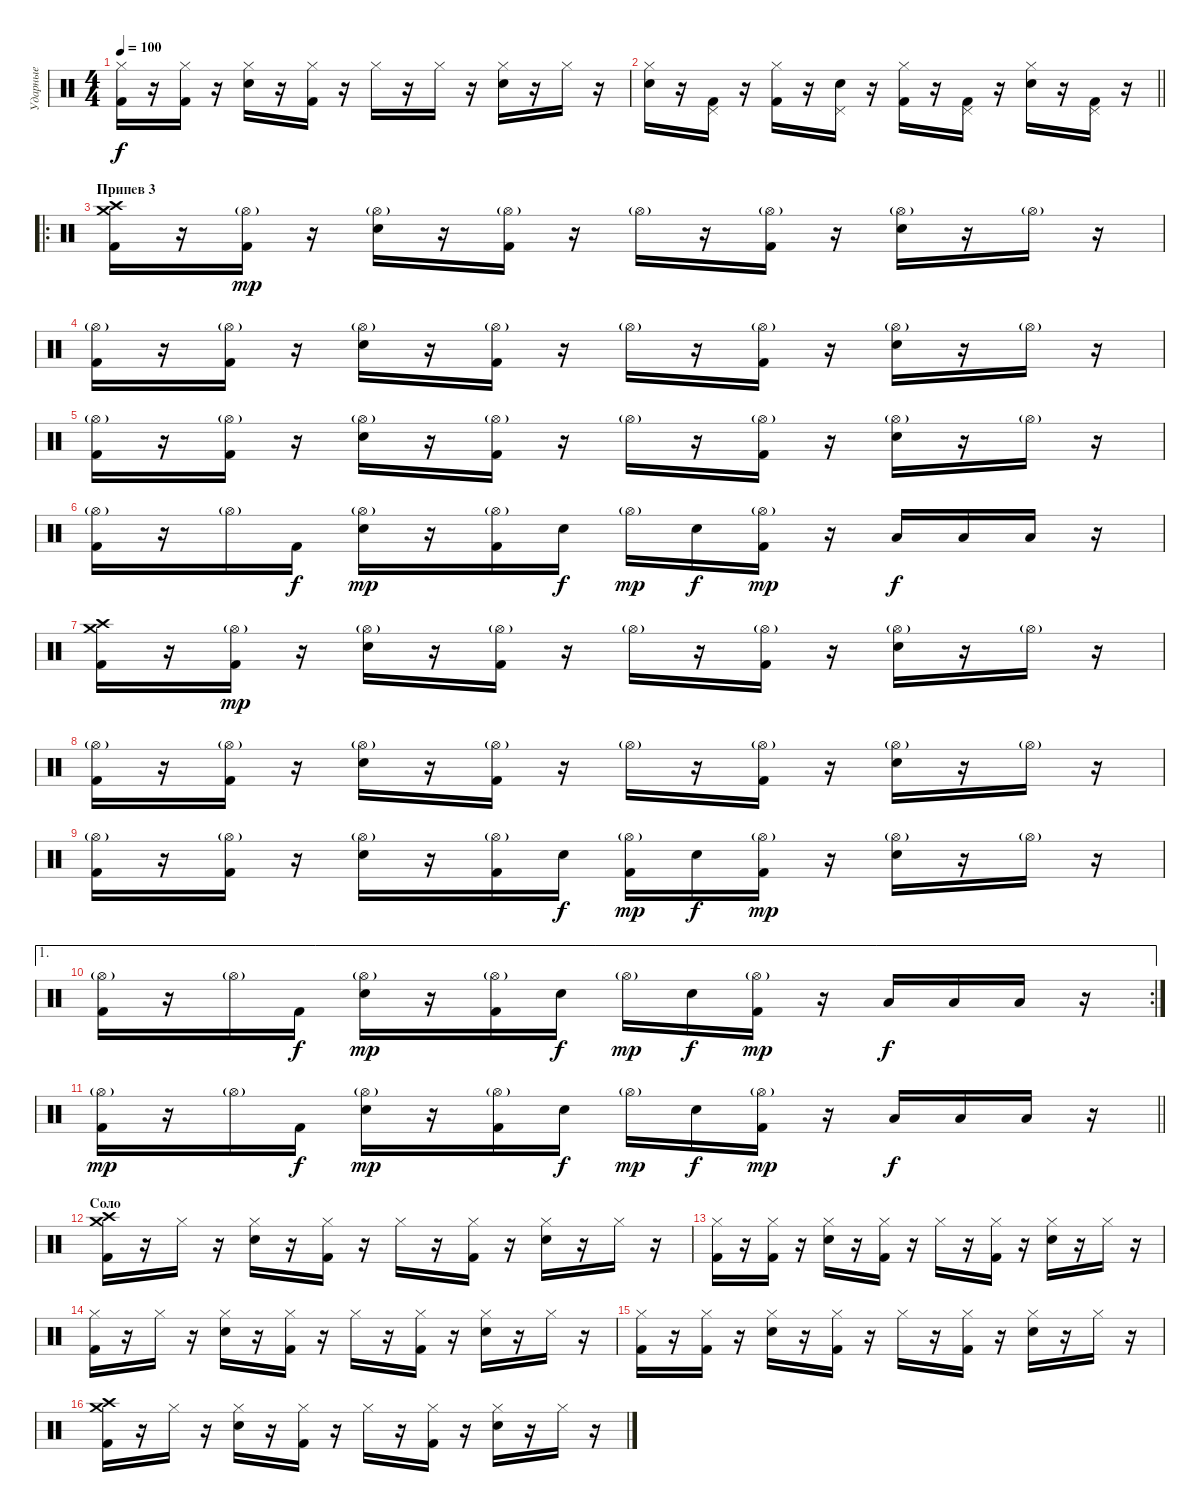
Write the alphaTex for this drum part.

\track ("Ударные" "Ударные") {instrument percussion}
\staff {score}
\articulation defaults
\ts (4 4)
\tempo 100
\clef neutral
\ks c
("Hi-Hat (closed)" "Kick (hit) 2").16{dy f} r.16 ("Hi-Hat (closed)" "Kick (hit) 2").16 r.16 ("Hi-Hat (closed)" "Electric Snare (hit)").16 r.16 ("Hi-Hat (closed)" "Kick (hit) 2").16 r.16 "Hi-Hat (closed)".16 r.16 "Hi-Hat (closed)".16 r.16 ("Hi-Hat (closed)" "Electric Snare (hit)").16 r.16 "Hi-Hat (closed)".16 r.16 |
\barLineRight lightlight
("Hi-Hat (closed)" "Electric Snare (hit)").16 r.16 ("Pedal Hi-Hat (hit)" "Kick (hit) 2").16 r.16 ("Hi-Hat (closed)" "Kick (hit) 2").16 r.16 ("Pedal Hi-Hat (hit)" "Electric Snare (hit)").16 r.16 ("Hi-Hat (closed)" "Kick (hit) 2").16 r.16 ("Pedal Hi-Hat (hit)" "Kick (hit) 2").16 r.16 ("Hi-Hat (closed)" "Electric Snare (hit)").16 r.16 ("Pedal Hi-Hat (hit)" "Kick (hit) 2").16 r.16 |
\ro
\section ("" "Припев 3")
("Crash high (hit)" "Crash medium (hit)" "Kick (hit) 2").16 r.16 ("Hi-Hat (open)"{g} "Kick (hit) 2").16{dy mp} r.16 ("Hi-Hat (open)"{g} "Electric Snare (hit)").16 r.16 ("Hi-Hat (open)"{g} "Kick (hit) 2").16 r.16 "Hi-Hat (open)"{g}.16 r.16 ("Hi-Hat (open)"{g} "Kick (hit) 2").16 r.16 ("Hi-Hat (open)"{g} "Electric Snare (hit)").16 r.16 "Hi-Hat (open)"{g}.16 r.16 |
("Hi-Hat (open)"{g} "Kick (hit) 2").16 r.16 ("Hi-Hat (open)"{g} "Kick (hit) 2").16 r.16 ("Hi-Hat (open)"{g} "Electric Snare (hit)").16 r.16 ("Hi-Hat (open)"{g} "Kick (hit) 2").16 r.16 "Hi-Hat (open)"{g}.16 r.16 ("Hi-Hat (open)"{g} "Kick (hit) 2").16 r.16 ("Hi-Hat (open)"{g} "Electric Snare (hit)").16 r.16 "Hi-Hat (open)"{g}.16 r.16 |
("Hi-Hat (open)"{g} "Kick (hit) 2").16 r.16 ("Hi-Hat (open)"{g} "Kick (hit) 2").16 r.16 ("Hi-Hat (open)"{g} "Electric Snare (hit)").16 r.16 ("Hi-Hat (open)"{g} "Kick (hit) 2").16 r.16 "Hi-Hat (open)"{g}.16 r.16 ("Hi-Hat (open)"{g} "Kick (hit) 2").16 r.16 ("Hi-Hat (open)"{g} "Electric Snare (hit)").16 r.16 "Hi-Hat (open)"{g}.16 r.16 |
("Hi-Hat (open)"{g} "Kick (hit) 2").16 r.16 "Hi-Hat (open)"{g}.16 "Kick (hit) 2".16{dy f} ("Hi-Hat (open)"{g} "Electric Snare (hit)").16{dy mp} r.16 ("Hi-Hat (open)"{g} "Kick (hit) 2").16 "Electric Snare (hit)".16{dy f} "Hi-Hat (open)"{g}.16{dy mp} "Electric Snare (hit)".16{dy f} ("Hi-Hat (open)"{g} "Kick (hit) 2").16{dy mp} r.16 "Low Tom (hit)".16{dy f} "Low Tom (hit)".16 "Low Floor Tom (hit)".16 r.16 |
("Crash high (hit)" "Crash medium (hit)" "Kick (hit) 2").16 r.16 ("Hi-Hat (open)"{g} "Kick (hit) 2").16{dy mp} r.16 ("Hi-Hat (open)"{g} "Electric Snare (hit)").16 r.16 ("Hi-Hat (open)"{g} "Kick (hit) 2").16 r.16 "Hi-Hat (open)"{g}.16 r.16 ("Hi-Hat (open)"{g} "Kick (hit) 2").16 r.16 ("Hi-Hat (open)"{g} "Electric Snare (hit)").16 r.16 "Hi-Hat (open)"{g}.16 r.16 |
("Hi-Hat (open)"{g} "Kick (hit) 2").16 r.16 ("Hi-Hat (open)"{g} "Kick (hit) 2").16 r.16 ("Hi-Hat (open)"{g} "Electric Snare (hit)").16 r.16 ("Hi-Hat (open)"{g} "Kick (hit) 2").16 r.16 "Hi-Hat (open)"{g}.16 r.16 ("Hi-Hat (open)"{g} "Kick (hit) 2").16 r.16 ("Hi-Hat (open)"{g} "Electric Snare (hit)").16 r.16 "Hi-Hat (open)"{g}.16 r.16 |
("Hi-Hat (open)"{g} "Kick (hit) 2").16 r.16 ("Hi-Hat (open)"{g} "Kick (hit) 2").16 r.16 ("Hi-Hat (open)"{g} "Electric Snare (hit)").16 r.16 ("Hi-Hat (open)"{g} "Kick (hit) 2").16 "Electric Snare (hit)".16{dy f} ("Hi-Hat (open)"{g} "Kick (hit) 2").16{dy mp} "Electric Snare (hit)".16{dy f} ("Hi-Hat (open)"{g} "Kick (hit) 2").16{dy mp} r.16 ("Hi-Hat (open)"{g} "Electric Snare (hit)").16 r.16 "Hi-Hat (open)"{g}.16 r.16 |
\ae 1
\rc 2
("Hi-Hat (open)"{g} "Kick (hit) 2").16 r.16 "Hi-Hat (open)"{g}.16 "Kick (hit) 2".16{dy f} ("Hi-Hat (open)"{g} "Electric Snare (hit)").16{dy mp} r.16 ("Hi-Hat (open)"{g} "Kick (hit) 2").16 "Electric Snare (hit)".16{dy f} "Hi-Hat (open)"{g}.16{dy mp} "Electric Snare (hit)".16{dy f} ("Hi-Hat (open)"{g} "Kick (hit) 2").16{dy mp} r.16 "Low Tom (hit)".16{dy f} "Low Tom (hit)".16 "Low Floor Tom (hit)".16 r.16 |
\barLineRight lightlight
("Hi-Hat (open)"{g} "Kick (hit) 2").16{dy mp} r.16 "Hi-Hat (open)"{g}.16 "Kick (hit) 2".16{dy f} ("Hi-Hat (open)"{g} "Electric Snare (hit)").16{dy mp} r.16 ("Hi-Hat (open)"{g} "Kick (hit) 2").16 "Electric Snare (hit)".16{dy f} "Hi-Hat (open)"{g}.16{dy mp} "Electric Snare (hit)".16{dy f} ("Hi-Hat (open)"{g} "Kick (hit) 2").16{dy mp} r.16 "Low Tom (hit)".16{dy f} "Low Tom (hit)".16 "Low Floor Tom (hit)".16 r.16 |
\section ("" "Соло")
("Crash high (hit)" "Crash medium (hit)" "Kick (hit) 2").16 r.16 "Hi-Hat (closed)".16 r.16 ("Hi-Hat (closed)" "Electric Snare (hit)").16 r.16 ("Hi-Hat (closed)" "Kick (hit) 2").16 r.16 "Hi-Hat (closed)".16 r.16 ("Hi-Hat (closed)" "Kick (hit) 2").16 r.16 ("Hi-Hat (closed)" "Electric Snare (hit)").16 r.16 "Hi-Hat (closed)".16 r.16 |
("Hi-Hat (closed)" "Kick (hit) 2").16 r.16 ("Hi-Hat (closed)" "Kick (hit) 2").16 r.16 ("Hi-Hat (closed)" "Electric Snare (hit)").16 r.16 ("Hi-Hat (closed)" "Kick (hit) 2").16 r.16 "Hi-Hat (closed)".16 r.16 ("Hi-Hat (closed)" "Kick (hit) 2").16 r.16 ("Hi-Hat (closed)" "Electric Snare (hit)").16 r.16 "Hi-Hat (closed)".16 r.16 |
("Hi-Hat (closed)" "Kick (hit) 2").16 r.16 "Hi-Hat (closed)".16 r.16 ("Hi-Hat (closed)" "Electric Snare (hit)").16 r.16 ("Hi-Hat (closed)" "Kick (hit) 2").16 r.16 "Hi-Hat (closed)".16 r.16 ("Hi-Hat (closed)" "Kick (hit) 2").16 r.16 ("Hi-Hat (closed)" "Electric Snare (hit)").16 r.16 "Hi-Hat (closed)".16 r.16 |
("Hi-Hat (closed)" "Kick (hit) 2").16 r.16 ("Hi-Hat (closed)" "Kick (hit) 2").16 r.16 ("Hi-Hat (closed)" "Electric Snare (hit)").16 r.16 ("Hi-Hat (closed)" "Kick (hit) 2").16 r.16 "Hi-Hat (closed)".16 r.16 ("Hi-Hat (closed)" "Kick (hit) 2").16 r.16 ("Hi-Hat (closed)" "Electric Snare (hit)").16 r.16 "Hi-Hat (closed)".16 r.16 |
("Crash high (hit)" "Crash medium (hit)" "Kick (hit) 2").16 r.16 "Hi-Hat (closed)".16 r.16 ("Hi-Hat (closed)" "Electric Snare (hit)").16 r.16 ("Hi-Hat (closed)" "Kick (hit) 2").16 r.16 "Hi-Hat (closed)".16 r.16 ("Hi-Hat (closed)" "Kick (hit) 2").16 r.16 ("Hi-Hat (closed)" "Electric Snare (hit)").16 r.16 "Hi-Hat (closed)".16 r.16
